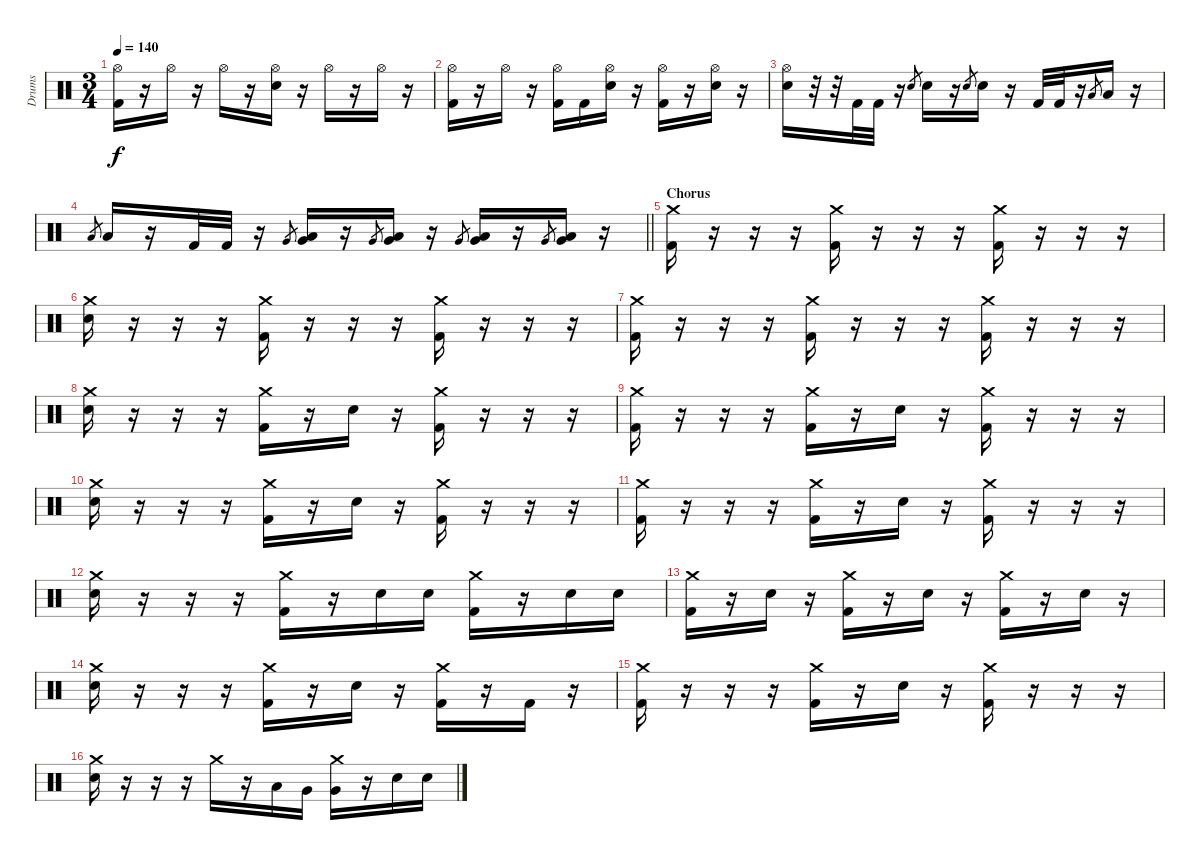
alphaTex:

\track ("Drums" "Drums") {instrument percussion}
\staff {score}
\articulation defaults
\ts (3 4)
\tempo 140
\clef neutral
\ks c
("Hi-Hat (open)" "Kick (hit) 2").16{dy f} r.16 "Hi-Hat (open)".16 r.16 "Hi-Hat (open)".16 r.16 ("Hi-Hat (open)" "Electric Snare (hit)").16 r.16 "Hi-Hat (open)".16 r.16 "Hi-Hat (open)".16 r.16 |
("Hi-Hat (open)" "Kick (hit) 2").16 r.16 "Hi-Hat (open)".16 r.16 ("Hi-Hat (open)" "Kick (hit) 2").16 "Kick (hit) 2".16 ("Hi-Hat (open)" "Electric Snare (hit)").16 r.16 ("Hi-Hat (open)" "Kick (hit) 2").16 r.16 ("Hi-Hat (open)" "Electric Snare (hit)").16 r.16 |
("Hi-Hat (open)" "Electric Snare (hit)").16 r.32 r.32 "Kick (hit) 2".32 "Kick (hit) 2".32 r.16 "Electric Snare (hit)".8{gr} "Electric Snare (hit)".16 r.16 "Electric Snare (hit)".8{gr} "Electric Snare (hit)".16 r.16 "Kick (hit) 2".32 "Kick (hit) 2".32 r.16 "Low Tom (hit)".8{gr} "Low Tom (hit)".16 r.16 |
\barLineRight lightlight "Low Tom (hit)".8{gr} "Low Tom (hit)".16
r.16 "Kick (hit) 2".32 "Kick (hit) 2".32 r.16 "Very Low Tom (hit)".8{gr} ("Low Floor Tom (hit)" "Very Low Tom (hit)").16 r.16 "Very Low Tom (hit)".8{gr} ("Low Floor Tom (hit)" "Very Low Tom (hit)").16 r.16 "Very Low Tom (hit)".8{gr} ("Low Floor Tom (hit)" "Very Low Tom (hit)").16 r.16 "Very Low Tom (hit)".8{gr} ("Low Floor Tom (hit)" "Very Low Tom (hit)").16 r.16 |
\section ("" "Chorus")
("Crash medium (hit)" "Kick (hit) 2").16 r.16 r.16 r.16 ("Crash medium (hit)" "Kick (hit) 2").16 r.16 r.16 r.16 ("Crash medium (hit)" "Kick (hit) 2").16 r.16 r.16 r.16 |
("Crash medium (hit)" "Electric Snare (hit)").16 r.16 r.16 r.16 ("Crash medium (hit)" "Kick (hit) 2").16 r.16 r.16 r.16 ("Crash medium (hit)" "Kick (hit) 2").16 r.16 r.16 r.16 |
("Crash medium (hit)" "Kick (hit) 2").16 r.16 r.16 r.16 ("Crash medium (hit)" "Kick (hit) 2").16 r.16 r.16 r.16 ("Crash medium (hit)" "Kick (hit) 2").16 r.16 r.16 r.16 |
("Crash medium (hit)" "Electric Snare (hit)").16 r.16 r.16 r.16 ("Crash medium (hit)" "Kick (hit) 2").16 r.16 "Electric Snare (hit)".16 r.16 ("Crash medium (hit)" "Kick (hit) 2").16 r.16 r.16 r.16 |
("Crash medium (hit)" "Kick (hit) 2").16 r.16 r.16 r.16 ("Crash medium (hit)" "Kick (hit) 2").16 r.16 "Electric Snare (hit)".16 r.16 ("Crash medium (hit)" "Kick (hit) 2").16 r.16 r.16 r.16 |
("Crash medium (hit)" "Electric Snare (hit)").16 r.16 r.16 r.16 ("Crash medium (hit)" "Kick (hit) 2").16 r.16 "Electric Snare (hit)".16 r.16 ("Crash medium (hit)" "Kick (hit) 2").16 r.16 r.16 r.16 |
("Crash medium (hit)" "Kick (hit) 2").16 r.16 r.16 r.16 ("Crash medium (hit)" "Kick (hit) 2").16 r.16 "Electric Snare (hit)".16 r.16 ("Crash medium (hit)" "Kick (hit) 2").16 r.16 r.16 r.16 |
("Crash medium (hit)" "Electric Snare (hit)").16 r.16 r.16 r.16 ("Crash medium (hit)" "Kick (hit) 2").16 r.16 "Electric Snare (hit)".16 "Electric Snare (hit)".16 ("Crash medium (hit)" "Kick (hit) 2").16 r.16 "Electric Snare (hit)".16 "Electric Snare (hit)".16 |
("Crash medium (hit)" "Kick (hit) 2").16 r.16 "Electric Snare (hit)".16 r.16 ("Crash medium (hit)" "Kick (hit) 2").16 r.16 "Electric Snare (hit)".16 r.16 ("Crash medium (hit)" "Kick (hit) 2").16 r.16 "Electric Snare (hit)".16 r.16 |
("Crash medium (hit)" "Electric Snare (hit)").16 r.16 r.16 r.16 ("Crash medium (hit)" "Kick (hit) 2").16 r.16 "Electric Snare (hit)".16 r.16 ("Crash medium (hit)" "Kick (hit) 2").16 r.16 "Kick (hit) 2".16 r.16 |
("Crash medium (hit)" "Kick (hit) 2").16 r.16 r.16 r.16 ("Crash medium (hit)" "Kick (hit) 2").16 r.16 "Electric Snare (hit)".16 r.16 ("Crash medium (hit)" "Kick (hit) 2").16 r.16 r.16 r.16 |
("Crash medium (hit)" "Electric Snare (hit)").16 r.16 r.16 r.16 "Crash medium (hit)".16 r.16 "Low Tom (hit)".16 "Very Low Tom (hit)".16 ("Crash medium (hit)" "Very Low Tom (hit)").16 r.16 "Electric Snare (hit)".16 "Electric Snare (hit)".16
